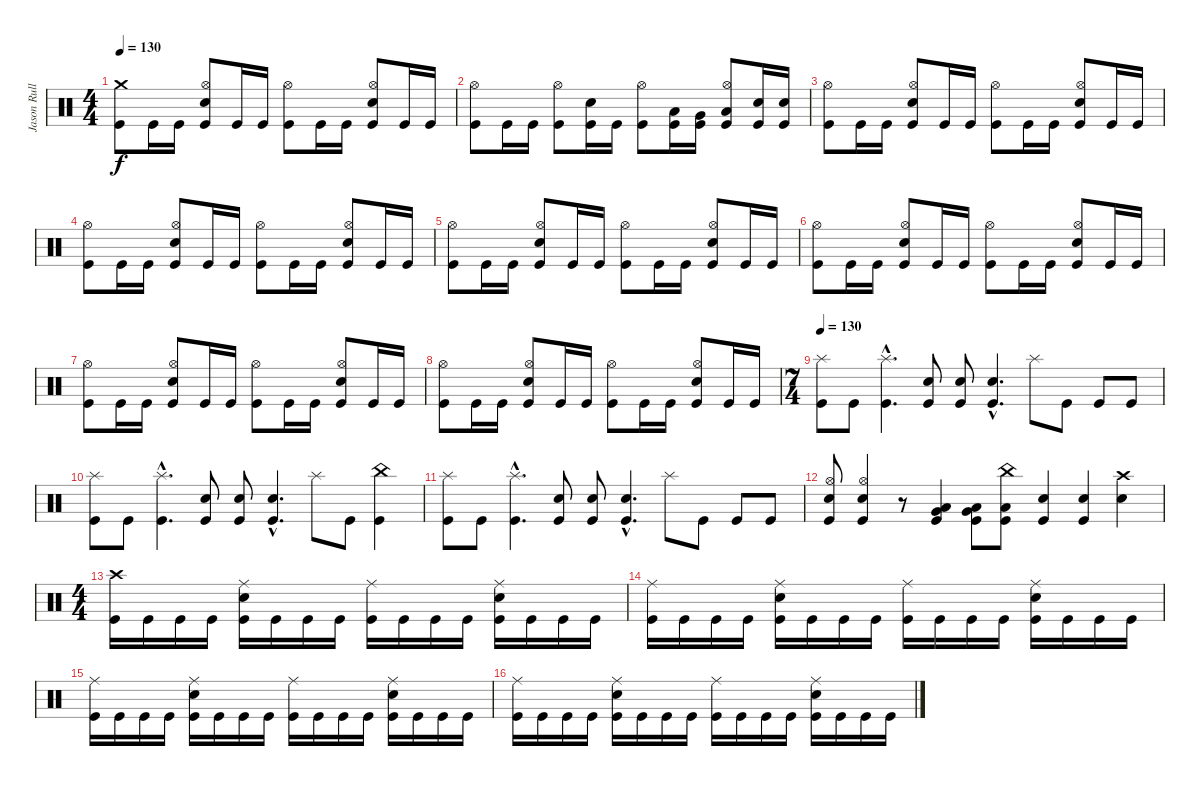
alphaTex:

\track ("Jason Rullo - Batterie" "Jason Rull") {instrument percussion}
\staff {score}
\articulation defaults
\ts (4 4)
\tempo 130
\clef neutral
\ks c
("Crash medium (hit)" "Kick (hit)").8{dy f} "Kick (hit)".16 "Kick (hit)".16 ("Hi-Hat (open)" "Snare (hit) 2" "Kick (hit)").8 "Kick (hit)".16 "Kick (hit)".16 ("Hi-Hat (open)" "Kick (hit)").8 "Kick (hit)".16 "Kick (hit)".16 ("Hi-Hat (open)" "Snare (hit) 2" "Kick (hit)").8 "Kick (hit)".16 "Kick (hit)".16 |
("Hi-Hat (open)" "Kick (hit)").8 "Kick (hit)".16 "Kick (hit)".16 ("Hi-Hat (open)" "Kick (hit)").8 ("Snare (hit) 2" "Kick (hit)").16 "Kick (hit)".16 ("Hi-Hat (open)" "Kick (hit)").8 ("Low Tom (hit)" "Kick (hit)").16 ("Very Low Tom (hit)" "Kick (hit)").16 ("Hi-Hat (open)" "Low Floor Tom (hit)" "Kick (hit)").8 ("Snare (hit) 2" "Kick (hit)").16 ("Snare (hit) 2" "Kick (hit)").16 |
("Hi-Hat (open)" "Kick (hit)").8 "Kick (hit)".16 "Kick (hit)".16 ("Hi-Hat (open)" "Snare (hit) 2" "Kick (hit)").8 "Kick (hit)".16 "Kick (hit)".16 ("Hi-Hat (open)" "Kick (hit)").8 "Kick (hit)".16 "Kick (hit)".16 ("Hi-Hat (open)" "Snare (hit) 2" "Kick (hit)").8 "Kick (hit)".16 "Kick (hit)".16 |
("Hi-Hat (open)" "Kick (hit)").8 "Kick (hit)".16 "Kick (hit)".16 ("Hi-Hat (open)" "Snare (hit) 2" "Kick (hit)").8 "Kick (hit)".16 "Kick (hit)".16 ("Hi-Hat (open)" "Kick (hit)").8 "Kick (hit)".16 "Kick (hit)".16 ("Hi-Hat (open)" "Snare (hit) 2" "Kick (hit)").8 "Kick (hit)".16 "Kick (hit)".16 |
("Hi-Hat (open)" "Kick (hit)").8 "Kick (hit)".16 "Kick (hit)".16 ("Hi-Hat (open)" "Snare (hit) 2" "Kick (hit)").8 "Kick (hit)".16 "Kick (hit)".16 ("Hi-Hat (open)" "Kick (hit)").8 "Kick (hit)".16 "Kick (hit)".16 ("Hi-Hat (open)" "Snare (hit) 2" "Kick (hit)").8 "Kick (hit)".16 "Kick (hit)".16 |
("Hi-Hat (open)" "Kick (hit)").8 "Kick (hit)".16 "Kick (hit)".16 ("Hi-Hat (open)" "Snare (hit) 2" "Kick (hit)").8 "Kick (hit)".16 "Kick (hit)".16 ("Hi-Hat (open)" "Kick (hit)").8 "Kick (hit)".16 "Kick (hit)".16 ("Hi-Hat (open)" "Snare (hit) 2" "Kick (hit)").8 "Kick (hit)".16 "Kick (hit)".16 |
("Hi-Hat (open)" "Kick (hit)").8 "Kick (hit)".16 "Kick (hit)".16 ("Hi-Hat (open)" "Snare (hit) 2" "Kick (hit)").8 "Kick (hit)".16 "Kick (hit)".16 ("Hi-Hat (open)" "Kick (hit)").8 "Kick (hit)".16 "Kick (hit)".16 ("Hi-Hat (open)" "Snare (hit) 2" "Kick (hit)").8 "Kick (hit)".16 "Kick (hit)".16 |
("Hi-Hat (open)" "Kick (hit)").8 "Kick (hit)".16 "Kick (hit)".16 ("Hi-Hat (open)" "Snare (hit) 2" "Kick (hit)").8 "Kick (hit)".16 "Kick (hit)".16 ("Hi-Hat (open)" "Kick (hit)").8 "Kick (hit)".16 "Kick (hit)".16 ("Hi-Hat (open)" "Snare (hit) 2" "Kick (hit)").8 "Kick (hit)".16 "Kick (hit)".16 |
\ts (7 4)
\tempo 130
("Splash (hit)" "Kick (hit)").8 "Kick (hit)".8 ("Splash (hit)"{hac} "Kick (hit)"{hac}).4{d} ("Snare (hit) 2" "Kick (hit)").8 ("Snare (hit) 2" "Kick (hit)").8 ("Snare (hit) 2"{hac} "Kick (hit)"{hac}).4{d} "Splash (hit)".8 "Kick (hit)".8 "Kick (hit)".8 "Kick (hit)".8 |
("Splash (hit)" "Kick (hit)").8 "Kick (hit)".8 ("Splash (hit)"{hac} "Kick (hit)"{hac}).4{d} ("Snare (hit) 2" "Kick (hit)").8 ("Snare (hit) 2" "Kick (hit)").8 ("Snare (hit) 2"{hac} "Kick (hit)"{hac}).4{d} "Splash (hit)".8 "Kick (hit)".8 ("China (hit)" "Kick (hit)").4 |
("Splash (hit)" "Kick (hit)").8 "Kick (hit)".8 ("Splash (hit)"{hac} "Kick (hit)"{hac}).4{d} ("Snare (hit) 2" "Kick (hit)").8 ("Snare (hit) 2" "Kick (hit)").8 ("Snare (hit) 2"{hac} "Kick (hit)"{hac}).4{d} "Splash (hit)".8 "Kick (hit)".8 "Kick (hit)".8 "Kick (hit)".8 |
("Hi-Hat (open)" "Snare (hit) 2" "Kick (hit)").8 ("Hi-Hat (open)" "Snare (hit) 2" "Kick (hit)").4 r.8 ("Very Low Tom (hit)" "Low Tom (hit)" "Kick (hit)").4 ("Low Floor Tom (hit)" "Very Low Tom (hit)" "Kick (hit)").8 ("China (hit)" "Low Floor Tom (hit)" "Kick (hit)").8 ("Snare (hit) 2" "Kick (hit)").4 ("Snare (hit) 2" "Kick (hit)").4 ("Crash high (hit)" "Snare (hit) 2").4 |
\ts (4 4)
("Crash high (hit)" "Kick (hit)").16 "Kick (hit)".16 "Kick (hit)".16 "Kick (hit)".16 ("Ride (middle)" "Snare (hit) 2" "Kick (hit)").16 "Kick (hit)".16 "Kick (hit)".16 "Kick (hit)".16 ("Ride (middle)" "Kick (hit)").16 "Kick (hit)".16 "Kick (hit)".16 "Kick (hit)".16 ("Ride (middle)" "Snare (hit) 2" "Kick (hit)").16 "Kick (hit)".16 "Kick (hit)".16 "Kick (hit)".16 |
("Ride (middle)" "Kick (hit)").16 "Kick (hit)".16 "Kick (hit)".16 "Kick (hit)".16 ("Ride (middle)" "Snare (hit) 2" "Kick (hit)").16 "Kick (hit)".16 "Kick (hit)".16 "Kick (hit)".16 ("Ride (middle)" "Kick (hit)").16 "Kick (hit)".16 "Kick (hit)".16 "Kick (hit)".16 ("Ride (middle)" "Snare (hit) 2" "Kick (hit)").16 "Kick (hit)".16 "Kick (hit)".16 "Kick (hit)".16 |
("Ride (middle)" "Kick (hit)").16 "Kick (hit)".16 "Kick (hit)".16 "Kick (hit)".16 ("Ride (middle)" "Snare (hit) 2" "Kick (hit)").16 "Kick (hit)".16 "Kick (hit)".16 "Kick (hit)".16 ("Ride (middle)" "Kick (hit)").16 "Kick (hit)".16 "Kick (hit)".16 "Kick (hit)".16 ("Ride (middle)" "Snare (hit) 2" "Kick (hit)").16 "Kick (hit)".16 "Kick (hit)".16 "Kick (hit)".16 |
("Ride (middle)" "Kick (hit)").16 "Kick (hit)".16 "Kick (hit)".16 "Kick (hit)".16 ("Ride (middle)" "Snare (hit) 2" "Kick (hit)").16 "Kick (hit)".16 "Kick (hit)".16 "Kick (hit)".16 ("Ride (middle)" "Kick (hit)").16 "Kick (hit)".16 "Kick (hit)".16 "Kick (hit)".16 ("Ride (middle)" "Snare (hit) 2" "Kick (hit)").16 "Kick (hit)".16 "Kick (hit)".16 "Kick (hit)".16
